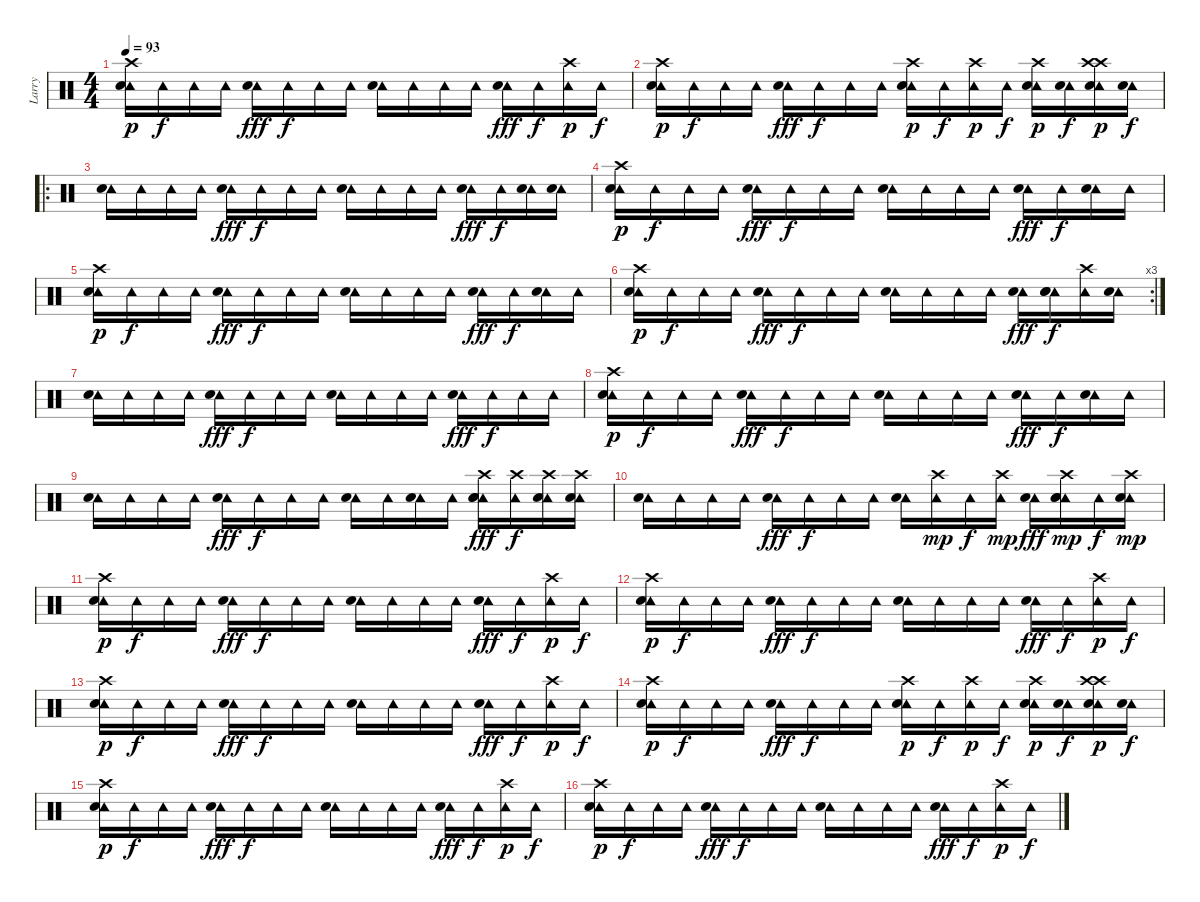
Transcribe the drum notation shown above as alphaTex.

\track ("Larry" "Larry") {instrument percussion}
\staff {score}
\articulation defaults
\ts (4 4)
\tempo 93
\clef neutral
\ks c
("Tambourine (hit)" "Crash high (hit)" "Electric Snare (hit)").16{dy p} "Tambourine (hit)".16{dy f} "Tambourine (hit)".16 "Tambourine (hit)".16 ("Tambourine (hit)" "Electric Snare (hit)").16{dy fff} "Tambourine (hit)".16{dy f} "Tambourine (hit)".16 "Tambourine (hit)".16 ("Tambourine (hit)" "Electric Snare (hit)").16 "Tambourine (hit)".16 "Tambourine (hit)".16 "Tambourine (hit)".16 ("Tambourine (hit)" "Electric Snare (hit)").16{dy fff} "Tambourine (hit)".16{dy f} ("Tambourine (hit)" "Crash high (hit)").16{dy p} "Tambourine (hit)".16{dy f} |
("Tambourine (hit)" "Crash high (hit)" "Electric Snare (hit)").16{dy p} "Tambourine (hit)".16{dy f} "Tambourine (hit)".16 "Tambourine (hit)".16 ("Tambourine (hit)" "Electric Snare (hit)").16{dy fff} "Tambourine (hit)".16{dy f} "Tambourine (hit)".16 "Tambourine (hit)".16 ("Tambourine (hit)" "Electric Snare (hit)" "Crash high (hit)").16{dy p} "Tambourine (hit)".16{dy f} ("Tambourine (hit)" "Crash high (hit)").16{dy p} "Tambourine (hit)".16{dy f} ("Tambourine (hit)" "Electric Snare (hit)" "Crash high (hit)").16{dy p} ("Tambourine (hit)" "Snare (hit) 2").16{dy f} ("Tambourine (hit)" "Crash high (hit)" "Electric Snare (hit)" "Crash high (hit)").16{dy p} ("Tambourine (hit)" "Electric Snare (hit)").16{dy f} |
\ro
("Tambourine (hit)" "Electric Snare (hit)").16 "Tambourine (hit)".16 "Tambourine (hit)".16 "Tambourine (hit)".16 ("Tambourine (hit)" "Electric Snare (hit)").16{dy fff} "Tambourine (hit)".16{dy f} "Tambourine (hit)".16 "Tambourine (hit)".16 ("Tambourine (hit)" "Electric Snare (hit)").16 "Tambourine (hit)".16 "Tambourine (hit)".16 "Tambourine (hit)".16 ("Tambourine (hit)" "Electric Snare (hit)").16{dy fff} "Tambourine (hit)".16{dy f} ("Tambourine (hit)" "Electric Snare (hit)").16 ("Tambourine (hit)" "Snare (hit) 2").16 |
("Tambourine (hit)" "Crash high (hit)" "Electric Snare (hit)").16{dy p} "Tambourine (hit)".16{dy f} "Tambourine (hit)".16 "Tambourine (hit)".16 ("Tambourine (hit)" "Electric Snare (hit)").16{dy fff} "Tambourine (hit)".16{dy f} "Tambourine (hit)".16 "Tambourine (hit)".16 ("Tambourine (hit)" "Electric Snare (hit)").16 "Tambourine (hit)".16 "Tambourine (hit)".16 "Tambourine (hit)".16 ("Tambourine (hit)" "Electric Snare (hit)").16{dy fff} "Tambourine (hit)".16{dy f} ("Tambourine (hit)" "Electric Snare (hit)").16 "Tambourine (hit)".16 |
("Tambourine (hit)" "Crash high (hit)" "Electric Snare (hit)").16{dy p} "Tambourine (hit)".16{dy f} "Tambourine (hit)".16 "Tambourine (hit)".16 ("Tambourine (hit)" "Electric Snare (hit)").16{dy fff} "Tambourine (hit)".16{dy f} "Tambourine (hit)".16 "Tambourine (hit)".16 ("Tambourine (hit)" "Electric Snare (hit)").16 "Tambourine (hit)".16 "Tambourine (hit)".16 "Tambourine (hit)".16 ("Tambourine (hit)" "Electric Snare (hit)").16{dy fff} "Tambourine (hit)".16{dy f} ("Tambourine (hit)" "Electric Snare (hit)").16 "Tambourine (hit)".16 |
\rc 3
("Tambourine (hit)" "Crash high (hit)" "Electric Snare (hit)").16{dy p} "Tambourine (hit)".16{dy f} "Tambourine (hit)".16 "Tambourine (hit)".16 ("Tambourine (hit)" "Electric Snare (hit)").16{dy fff} "Tambourine (hit)".16{dy f} "Tambourine (hit)".16 "Tambourine (hit)".16 ("Tambourine (hit)" "Electric Snare (hit)").16 "Tambourine (hit)".16 "Tambourine (hit)".16 "Tambourine (hit)".16 ("Tambourine (hit)" "Electric Snare (hit)").16{dy fff} ("Tambourine (hit)" "Snare (hit) 2" "Electric Snare (hit)").16{dy f} ("Tambourine (hit)" "Crash high (hit)").16 ("Tambourine (hit)" "Snare (hit) 2").16 |
("Tambourine (hit)" "Electric Snare (hit)").16 "Tambourine (hit)".16 "Tambourine (hit)".16 "Tambourine (hit)".16 ("Tambourine (hit)" "Electric Snare (hit)").16{dy fff} "Tambourine (hit)".16{dy f} "Tambourine (hit)".16 "Tambourine (hit)".16 ("Tambourine (hit)" "Electric Snare (hit)").16 "Tambourine (hit)".16 "Tambourine (hit)".16 "Tambourine (hit)".16 ("Tambourine (hit)" "Electric Snare (hit)").16{dy fff} "Tambourine (hit)".16{dy f} "Tambourine (hit)".16 "Tambourine (hit)".16 |
("Tambourine (hit)" "Crash high (hit)" "Electric Snare (hit)").16{dy p} "Tambourine (hit)".16{dy f} "Tambourine (hit)".16 "Tambourine (hit)".16 ("Tambourine (hit)" "Electric Snare (hit)").16{dy fff} "Tambourine (hit)".16{dy f} "Tambourine (hit)".16 "Tambourine (hit)".16 ("Tambourine (hit)" "Electric Snare (hit)").16 "Tambourine (hit)".16 "Tambourine (hit)".16 "Tambourine (hit)".16 ("Tambourine (hit)" "Electric Snare (hit)").16{dy fff} "Tambourine (hit)".16{dy f} ("Tambourine (hit)" "Electric Snare (hit)").16 "Tambourine (hit)".16 |
("Tambourine (hit)" "Electric Snare (hit)").16 "Tambourine (hit)".16 "Tambourine (hit)".16 "Tambourine (hit)".16 ("Tambourine (hit)" "Electric Snare (hit)").16{dy fff} "Tambourine (hit)".16{dy f} "Tambourine (hit)".16 "Tambourine (hit)".16 ("Tambourine (hit)" "Electric Snare (hit)").16 "Tambourine (hit)".16 ("Tambourine (hit)" "Snare (hit) 2").16 "Tambourine (hit)".16 ("Tambourine (hit)" "Snare (hit) 2" "Electric Snare (hit)" "Crash high (hit)").16{dy fff} ("Tambourine (hit)" "Crash high (hit)").16{dy f} ("Tambourine (hit)" "Snare (hit) 2" "Crash high (hit)").16 ("Tambourine (hit)" "Electric Snare (hit)" "Crash high (hit)").16 |
("Tambourine (hit)" "Electric Snare (hit)").16 "Tambourine (hit)".16 "Tambourine (hit)".16 "Tambourine (hit)".16 ("Tambourine (hit)" "Electric Snare (hit)").16{dy fff} "Tambourine (hit)".16{dy f} "Tambourine (hit)".16 "Tambourine (hit)".16 ("Tambourine (hit)" "Electric Snare (hit)").16 ("Tambourine (hit)" "Crash high (hit)").16{dy mp} "Tambourine (hit)".16{dy f} ("Tambourine (hit)" "Crash high (hit)").16{dy mp} ("Tambourine (hit)" "Electric Snare (hit)").16{dy fff} ("Tambourine (hit)" "Snare (hit) 2" "Electric Snare (hit)" "Crash high (hit)").16{dy mp} "Tambourine (hit)".16{dy f} ("Tambourine (hit)" "Snare (hit) 2" "Crash high (hit)").16{dy mp} |
("Tambourine (hit)" "Crash high (hit)" "Electric Snare (hit)").16{dy p} "Tambourine (hit)".16{dy f} "Tambourine (hit)".16 "Tambourine (hit)".16 ("Tambourine (hit)" "Electric Snare (hit)").16{dy fff} "Tambourine (hit)".16{dy f} "Tambourine (hit)".16 "Tambourine (hit)".16 ("Tambourine (hit)" "Electric Snare (hit)").16 "Tambourine (hit)".16 "Tambourine (hit)".16 "Tambourine (hit)".16 ("Tambourine (hit)" "Electric Snare (hit)").16{dy fff} "Tambourine (hit)".16{dy f} ("Tambourine (hit)" "Crash high (hit)").16{dy p} "Tambourine (hit)".16{dy f} |
("Tambourine (hit)" "Crash high (hit)" "Electric Snare (hit)").16{dy p} "Tambourine (hit)".16{dy f} "Tambourine (hit)".16 "Tambourine (hit)".16 ("Tambourine (hit)" "Electric Snare (hit)").16{dy fff} "Tambourine (hit)".16{dy f} "Tambourine (hit)".16 "Tambourine (hit)".16 ("Tambourine (hit)" "Electric Snare (hit)").16 "Tambourine (hit)".16 "Tambourine (hit)".16 "Tambourine (hit)".16 ("Tambourine (hit)" "Electric Snare (hit)").16{dy fff} "Tambourine (hit)".16{dy f} ("Tambourine (hit)" "Crash high (hit)").16{dy p} "Tambourine (hit)".16{dy f} |
("Tambourine (hit)" "Crash high (hit)" "Electric Snare (hit)").16{dy p} "Tambourine (hit)".16{dy f} "Tambourine (hit)".16 "Tambourine (hit)".16 ("Tambourine (hit)" "Electric Snare (hit)").16{dy fff} "Tambourine (hit)".16{dy f} "Tambourine (hit)".16 "Tambourine (hit)".16 ("Tambourine (hit)" "Electric Snare (hit)").16 "Tambourine (hit)".16 "Tambourine (hit)".16 "Tambourine (hit)".16 ("Tambourine (hit)" "Electric Snare (hit)").16{dy fff} "Tambourine (hit)".16{dy f} ("Tambourine (hit)" "Crash high (hit)").16{dy p} "Tambourine (hit)".16{dy f} |
("Tambourine (hit)" "Crash high (hit)" "Electric Snare (hit)").16{dy p} "Tambourine (hit)".16{dy f} "Tambourine (hit)".16 "Tambourine (hit)".16 ("Tambourine (hit)" "Electric Snare (hit)").16{dy fff} "Tambourine (hit)".16{dy f} "Tambourine (hit)".16 "Tambourine (hit)".16 ("Tambourine (hit)" "Electric Snare (hit)" "Crash high (hit)").16{dy p} "Tambourine (hit)".16{dy f} ("Tambourine (hit)" "Crash high (hit)").16{dy p} "Tambourine (hit)".16{dy f} ("Tambourine (hit)" "Electric Snare (hit)" "Crash high (hit)").16{dy p} ("Tambourine (hit)" "Snare (hit) 2").16{dy f} ("Tambourine (hit)" "Crash high (hit)" "Electric Snare (hit)" "Crash high (hit)").16{dy p} ("Tambourine (hit)" "Electric Snare (hit)").16{dy f} |
("Tambourine (hit)" "Crash high (hit)" "Electric Snare (hit)").16{dy p} "Tambourine (hit)".16{dy f} "Tambourine (hit)".16 "Tambourine (hit)".16 ("Tambourine (hit)" "Electric Snare (hit)").16{dy fff} "Tambourine (hit)".16{dy f} "Tambourine (hit)".16 "Tambourine (hit)".16 ("Tambourine (hit)" "Electric Snare (hit)").16 "Tambourine (hit)".16 "Tambourine (hit)".16 "Tambourine (hit)".16 ("Tambourine (hit)" "Electric Snare (hit)").16{dy fff} "Tambourine (hit)".16{dy f} ("Tambourine (hit)" "Crash high (hit)").16{dy p} "Tambourine (hit)".16{dy f} |
("Tambourine (hit)" "Crash high (hit)" "Electric Snare (hit)").16{dy p} "Tambourine (hit)".16{dy f} "Tambourine (hit)".16 "Tambourine (hit)".16 ("Tambourine (hit)" "Electric Snare (hit)").16{dy fff} "Tambourine (hit)".16{dy f} "Tambourine (hit)".16 "Tambourine (hit)".16 ("Tambourine (hit)" "Electric Snare (hit)").16 "Tambourine (hit)".16 "Tambourine (hit)".16 "Tambourine (hit)".16 ("Tambourine (hit)" "Electric Snare (hit)").16{dy fff} "Tambourine (hit)".16{dy f} ("Tambourine (hit)" "Crash high (hit)").16{dy p} "Tambourine (hit)".16{dy f}
